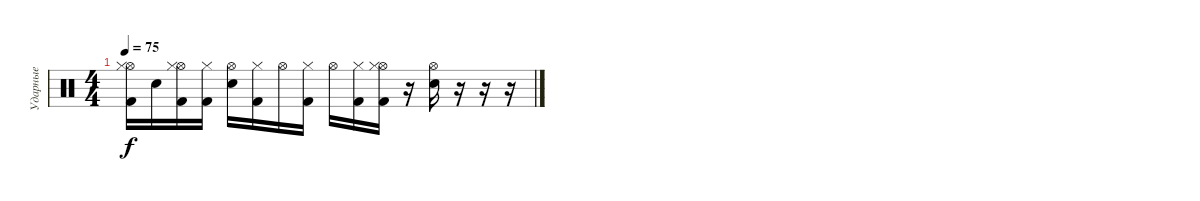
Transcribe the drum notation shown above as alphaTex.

\track ("Ударные" "Ударные") {instrument percussion}
\staff {score}
\articulation defaults
\ts (4 4)
\tempo 75
\clef neutral
\ks c
("Hi-Hat (open)" "Hi-Hat (closed)" "Kick (hit) 2").16{dy f} "Electric Snare (hit)".16 ("Hi-Hat (open)" "Hi-Hat (closed)" "Kick (hit) 2").16 ("Hi-Hat (closed)" "Kick (hit) 2").16 ("Hi-Hat (open)" "Electric Snare (hit)").16 ("Hi-Hat (closed)" "Kick (hit) 2").16 "Hi-Hat (open)".16 ("Hi-Hat (closed)" "Kick (hit) 2").16 "Hi-Hat (open)".16 ("Hi-Hat (closed)" "Kick (hit) 2").16 ("Hi-Hat (open)" "Hi-Hat (closed)" "Kick (hit) 2").16 r.16 ("Hi-Hat (open)" "Electric Snare (hit)").16 r.16 r.16 r.16
